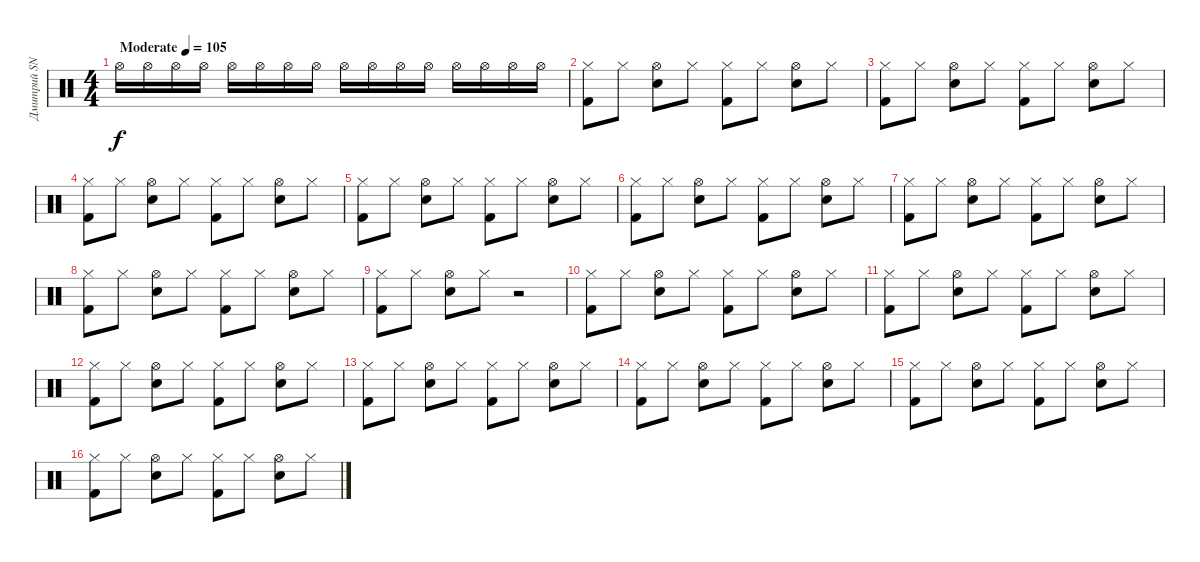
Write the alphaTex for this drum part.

\track ("Дмитрий SNAKE Хакимов" "Дмитрий SN") {instrument percussion}
\staff {score}
\articulation defaults
\ts (4 4)
\tempo (105 "Moderate")
\clef neutral
\ks c "Hi-Hat (open)".16{dy f} "Hi-Hat (open)".16 "Hi-Hat (open)".16 "Hi-Hat (open)".16 "Hi-Hat (open)".16 "Hi-Hat (open)".16 "Hi-Hat (open)".16 "Hi-Hat (open)".16 "Hi-Hat (open)".16 "Hi-Hat (open)".16 "Hi-Hat (open)".16 "Hi-Hat (open)".16 "Hi-Hat (open)".16 "Hi-Hat (open)".16 "Hi-Hat (open)".16 "Hi-Hat (open)".16
|
("Hi-Hat (closed)" "Kick (hit) 2").8 "Hi-Hat (closed)".8 ("Hi-Hat (open)" "Snare (hit) 2").8 "Hi-Hat (closed)".8 ("Hi-Hat (closed)" "Kick (hit) 2").8 "Hi-Hat (closed)".8 ("Hi-Hat (open)" "Snare (hit) 2").8 "Hi-Hat (closed)".8 |
("Hi-Hat (closed)" "Kick (hit) 2").8 "Hi-Hat (closed)".8 ("Hi-Hat (open)" "Snare (hit) 2").8 "Hi-Hat (closed)".8 ("Hi-Hat (closed)" "Kick (hit) 2").8 "Hi-Hat (closed)".8 ("Hi-Hat (open)" "Snare (hit) 2").8 "Hi-Hat (closed)".8 |
("Hi-Hat (closed)" "Kick (hit) 2").8 "Hi-Hat (closed)".8 ("Hi-Hat (open)" "Snare (hit) 2").8 "Hi-Hat (closed)".8 ("Hi-Hat (closed)" "Kick (hit) 2").8 "Hi-Hat (closed)".8 ("Hi-Hat (open)" "Snare (hit) 2").8 "Hi-Hat (closed)".8 |
("Hi-Hat (closed)" "Kick (hit) 2").8 "Hi-Hat (closed)".8 ("Hi-Hat (open)" "Snare (hit) 2").8 "Hi-Hat (closed)".8 ("Hi-Hat (closed)" "Kick (hit) 2").8 "Hi-Hat (closed)".8 ("Hi-Hat (open)" "Snare (hit) 2").8 "Hi-Hat (closed)".8 |
("Hi-Hat (closed)" "Kick (hit) 2").8 "Hi-Hat (closed)".8 ("Hi-Hat (open)" "Snare (hit) 2").8 "Hi-Hat (closed)".8 ("Hi-Hat (closed)" "Kick (hit) 2").8 "Hi-Hat (closed)".8 ("Hi-Hat (open)" "Snare (hit) 2").8 "Hi-Hat (closed)".8 |
("Hi-Hat (closed)" "Kick (hit) 2").8 "Hi-Hat (closed)".8 ("Hi-Hat (open)" "Snare (hit) 2").8 "Hi-Hat (closed)".8 ("Hi-Hat (closed)" "Kick (hit) 2").8 "Hi-Hat (closed)".8 ("Hi-Hat (open)" "Snare (hit) 2").8 "Hi-Hat (closed)".8 |
("Hi-Hat (closed)" "Kick (hit) 2").8 "Hi-Hat (closed)".8 ("Hi-Hat (open)" "Snare (hit) 2").8 "Hi-Hat (closed)".8 ("Hi-Hat (closed)" "Kick (hit) 2").8 "Hi-Hat (closed)".8 ("Hi-Hat (open)" "Snare (hit) 2").8 "Hi-Hat (closed)".8 |
("Hi-Hat (closed)" "Kick (hit) 2").8 "Hi-Hat (closed)".8 ("Hi-Hat (open)" "Snare (hit) 2").8 "Hi-Hat (closed)".8 r.2 |
("Hi-Hat (closed)" "Kick (hit) 2").8 "Hi-Hat (closed)".8 ("Hi-Hat (open)" "Snare (hit) 2").8 "Hi-Hat (closed)".8 ("Hi-Hat (closed)" "Kick (hit) 2").8 "Hi-Hat (closed)".8 ("Hi-Hat (open)" "Snare (hit) 2").8 "Hi-Hat (closed)".8 |
("Hi-Hat (closed)" "Kick (hit) 2").8 "Hi-Hat (closed)".8 ("Hi-Hat (open)" "Snare (hit) 2").8 "Hi-Hat (closed)".8 ("Hi-Hat (closed)" "Kick (hit) 2").8 "Hi-Hat (closed)".8 ("Hi-Hat (open)" "Snare (hit) 2").8 "Hi-Hat (closed)".8 |
("Hi-Hat (closed)" "Kick (hit) 2").8 "Hi-Hat (closed)".8 ("Hi-Hat (open)" "Snare (hit) 2").8 "Hi-Hat (closed)".8 ("Hi-Hat (closed)" "Kick (hit) 2").8 "Hi-Hat (closed)".8 ("Hi-Hat (open)" "Snare (hit) 2").8 "Hi-Hat (closed)".8 |
("Hi-Hat (closed)" "Kick (hit) 2").8 "Hi-Hat (closed)".8 ("Hi-Hat (open)" "Snare (hit) 2").8 "Hi-Hat (closed)".8 ("Hi-Hat (closed)" "Kick (hit) 2").8 "Hi-Hat (closed)".8 ("Hi-Hat (open)" "Snare (hit) 2").8 "Hi-Hat (closed)".8 |
("Hi-Hat (closed)" "Kick (hit) 2").8 "Hi-Hat (closed)".8 ("Hi-Hat (open)" "Snare (hit) 2").8 "Hi-Hat (closed)".8 ("Hi-Hat (closed)" "Kick (hit) 2").8 "Hi-Hat (closed)".8 ("Hi-Hat (open)" "Snare (hit) 2").8 "Hi-Hat (closed)".8 |
("Hi-Hat (closed)" "Kick (hit) 2").8 "Hi-Hat (closed)".8 ("Hi-Hat (open)" "Snare (hit) 2").8 "Hi-Hat (closed)".8 ("Hi-Hat (closed)" "Kick (hit) 2").8 "Hi-Hat (closed)".8 ("Hi-Hat (open)" "Snare (hit) 2").8 "Hi-Hat (closed)".8 |
("Hi-Hat (closed)" "Kick (hit) 2").8 "Hi-Hat (closed)".8 ("Hi-Hat (open)" "Snare (hit) 2").8 "Hi-Hat (closed)".8 ("Hi-Hat (closed)" "Kick (hit) 2").8 "Hi-Hat (closed)".8 ("Hi-Hat (open)" "Snare (hit) 2").8 "Hi-Hat (closed)".8
